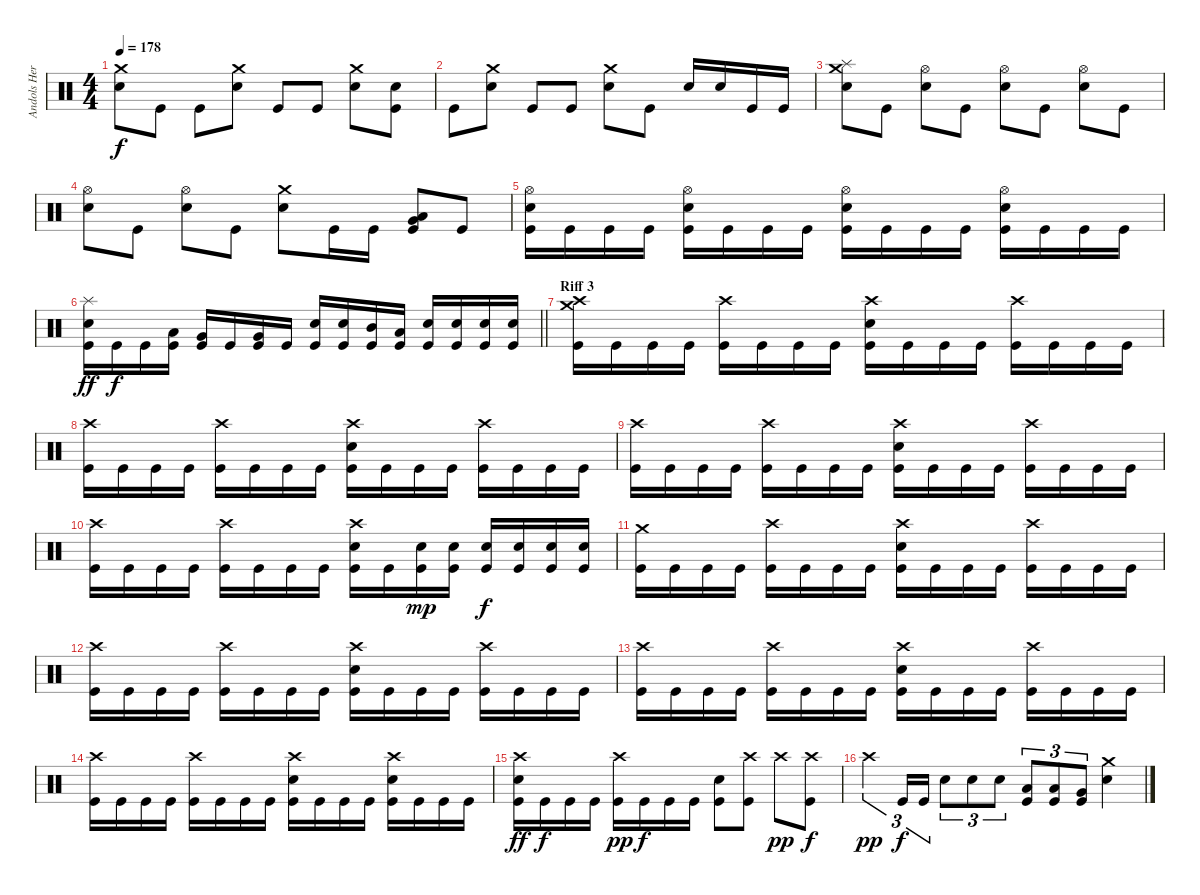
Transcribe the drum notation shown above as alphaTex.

\track ("Andols Herrick" "Andols Her") {instrument percussion}
\staff {score}
\articulation defaults
\ts (4 4)
\tempo 178
\clef neutral
\ks c
("Crash medium (hit)" "Electric Snare (hit)").8{dy f} "Kick (hit)".8 "Kick (hit)".8 ("Crash medium (hit)" "Electric Snare (hit)").8 "Kick (hit)".8 "Kick (hit)".8 ("Crash medium (hit)" "Electric Snare (hit)").8 ("Electric Snare (hit)" "Kick (hit)").8 |
"Kick (hit)".8 ("Crash medium (hit)" "Electric Snare (hit)").8 "Kick (hit)".8 "Kick (hit)".8 ("Crash medium (hit)" "Electric Snare (hit)").8 "Kick (hit)".8 "Electric Snare (hit)".16 "Electric Snare (hit)".16 "Kick (hit)".16 "Kick (hit)".16 |
("Crash medium (hit)" "Splash (hit)" "Electric Snare (hit)").8 "Kick (hit)".8 ("Hi-Hat (open)" "Electric Snare (hit)").8 "Kick (hit)".8 ("Hi-Hat (open)" "Electric Snare (hit)").8 "Kick (hit)".8 ("Hi-Hat (open)" "Electric Snare (hit)").8 "Kick (hit)".8 |
("Hi-Hat (open)" "Electric Snare (hit)").8 "Kick (hit)".8 ("Hi-Hat (open)" "Electric Snare (hit)").8 "Kick (hit)".8 ("Crash medium (hit)" "Electric Snare (hit)").8 "Kick (hit)".16 "Kick (hit)".16 ("Low Floor Tom (hit)" "Very Low Tom (hit)" "Kick (hit)").8 "Kick (hit)".8 |
("Hi-Hat (open)" "Electric Snare (hit)" "Kick (hit)").16 "Kick (hit)".16 "Kick (hit)".16 "Kick (hit)".16 ("Hi-Hat (open)" "Electric Snare (hit)" "Kick (hit)").16 "Kick (hit)".16 "Kick (hit)".16 "Kick (hit)".16 ("Hi-Hat (open)" "Electric Snare (hit)" "Kick (hit)").16 "Kick (hit)".16 "Kick (hit)".16 "Kick (hit)".16 ("Hi-Hat (open)" "Electric Snare (hit)" "Kick (hit)").16 "Kick (hit)".16 "Kick (hit)".16 "Kick (hit)".16 |
\barLineRight lightlight
("Splash (hit)" "Electric Snare (hit)" "Kick (hit)").16{dy ff} "Kick (hit)".16{dy f} "Kick (hit)".16 ("Low Tom (hit)" "Kick (hit)").16 ("Very Low Tom (hit)" "Kick (hit)").16 "Kick (hit)".16 ("Very Low Tom (hit)" "Kick (hit)").16 "Kick (hit)".16 ("Electric Snare (hit)" "Kick (hit)").16 ("Electric Snare (hit)" "Kick (hit)").16 ("Mid Tom (hit)" "Kick (hit)").16 ("Low Tom (hit)" "Kick (hit)").16 ("Electric Snare (hit)" "Kick (hit)").16 ("Electric Snare (hit)" "Kick (hit)").16 ("Electric Snare (hit)" "Kick (hit)").16 ("Electric Snare (hit)" "Kick (hit)").16 |
\section ("" "Riff 3")
("Crash high (hit)" "Crash medium (hit)" "Kick (hit)").16 "Kick (hit)".16 "Kick (hit)".16 "Kick (hit)".16 ("Crash high (hit)" "Kick (hit)").16 "Kick (hit)".16 "Kick (hit)".16 "Kick (hit)".16 ("Crash high (hit)" "Electric Snare (hit)" "Kick (hit)").16 "Kick (hit)".16 "Kick (hit)".16 "Kick (hit)".16 ("Crash high (hit)" "Kick (hit)").16 "Kick (hit)".16 "Kick (hit)".16 "Kick (hit)".16 |
("Crash high (hit)" "Kick (hit)").16 "Kick (hit)".16 "Kick (hit)".16 "Kick (hit)".16 ("Crash high (hit)" "Kick (hit)").16 "Kick (hit)".16 "Kick (hit)".16 "Kick (hit)".16 ("Crash high (hit)" "Electric Snare (hit)" "Kick (hit)").16 "Kick (hit)".16 "Kick (hit)".16 "Kick (hit)".16 ("Crash high (hit)" "Kick (hit)").16 "Kick (hit)".16 "Kick (hit)".16 "Kick (hit)".16 |
("Crash high (hit)" "Kick (hit)").16 "Kick (hit)".16 "Kick (hit)".16 "Kick (hit)".16 ("Crash high (hit)" "Kick (hit)").16 "Kick (hit)".16 "Kick (hit)".16 "Kick (hit)".16 ("Crash high (hit)" "Electric Snare (hit)" "Kick (hit)").16 "Kick (hit)".16 "Kick (hit)".16 "Kick (hit)".16 ("Crash high (hit)" "Kick (hit)").16 "Kick (hit)".16 "Kick (hit)".16 "Kick (hit)".16 |
("Crash high (hit)" "Kick (hit)").16 "Kick (hit)".16 "Kick (hit)".16 "Kick (hit)".16 ("Crash high (hit)" "Kick (hit)").16 "Kick (hit)".16 "Kick (hit)".16 "Kick (hit)".16 ("Crash high (hit)" "Electric Snare (hit)" "Kick (hit)").16 "Kick (hit)".16 ("Electric Snare (hit)" "Kick (hit)").16{dy mp} ("Electric Snare (hit)" "Kick (hit)").16 ("Electric Snare (hit)" "Kick (hit)").16{dy f} ("Electric Snare (hit)" "Kick (hit)").16 ("Electric Snare (hit)" "Kick (hit)").16 ("Electric Snare (hit)" "Kick (hit)").16 |
("Crash medium (hit)" "Kick (hit)").16 "Kick (hit)".16 "Kick (hit)".16 "Kick (hit)".16 ("Crash high (hit)" "Kick (hit)").16 "Kick (hit)".16 "Kick (hit)".16 "Kick (hit)".16 ("Crash high (hit)" "Electric Snare (hit)" "Kick (hit)").16 "Kick (hit)".16 "Kick (hit)".16 "Kick (hit)".16 ("Crash high (hit)" "Kick (hit)").16 "Kick (hit)".16 "Kick (hit)".16 "Kick (hit)".16 |
("Crash high (hit)" "Kick (hit)").16 "Kick (hit)".16 "Kick (hit)".16 "Kick (hit)".16 ("Crash high (hit)" "Kick (hit)").16 "Kick (hit)".16 "Kick (hit)".16 "Kick (hit)".16 ("Crash high (hit)" "Electric Snare (hit)" "Kick (hit)").16 "Kick (hit)".16 "Kick (hit)".16 "Kick (hit)".16 ("Crash high (hit)" "Kick (hit)").16 "Kick (hit)".16 "Kick (hit)".16 "Kick (hit)".16 |
("Crash high (hit)" "Kick (hit)").16 "Kick (hit)".16 "Kick (hit)".16 "Kick (hit)".16 ("Crash high (hit)" "Kick (hit)").16 "Kick (hit)".16 "Kick (hit)".16 "Kick (hit)".16 ("Crash high (hit)" "Electric Snare (hit)" "Kick (hit)").16 "Kick (hit)".16 "Kick (hit)".16 "Kick (hit)".16 ("Crash high (hit)" "Kick (hit)").16 "Kick (hit)".16 "Kick (hit)".16 "Kick (hit)".16 |
("Crash high (hit)" "Kick (hit)").16 "Kick (hit)".16 "Kick (hit)".16 "Kick (hit)".16 ("Crash high (hit)" "Kick (hit)").16 "Kick (hit)".16 "Kick (hit)".16 "Kick (hit)".16 ("Crash high (hit)" "Electric Snare (hit)" "Kick (hit)").16 "Kick (hit)".16 "Kick (hit)".16 "Kick (hit)".16 ("Crash high (hit)" "Electric Snare (hit)" "Kick (hit)").16 "Kick (hit)".16 "Kick (hit)".16 "Kick (hit)".16 |
("Crash high (hit)" "Electric Snare (hit)" "Kick (hit)").16{dy ff} "Kick (hit)".16{dy f} "Kick (hit)".16 "Kick (hit)".16 ("Crash high (hit)" "Kick (hit)").16{dy pp} "Kick (hit)".16{dy f} "Kick (hit)".16 "Kick (hit)".16 ("Electric Snare (hit)" "Kick (hit)").8 ("Crash high (hit)" "Kick (hit)").8 "Crash high (hit)".8{dy pp} ("Crash high (hit)" "Kick (hit)").8{dy f} |
"Crash high (hit)".4{tu (3 2) dy pp} "Kick (hit)".16{tu (3 2) dy f} "Kick (hit)".16{tu (3 2)} "Electric Snare (hit)".8{tu (3 2)} "Electric Snare (hit)".8{tu (3 2)} "Electric Snare (hit)".8{tu (3 2)} ("Low Tom (hit)" "Kick (hit)").8{tu (3 2)} ("Low Tom (hit)" "Kick (hit)").8{tu (3 2)} ("Very Low Tom (hit)" "Kick (hit)").8{tu (3 2)} ("Crash medium (hit)" "Electric Snare (hit)").4
